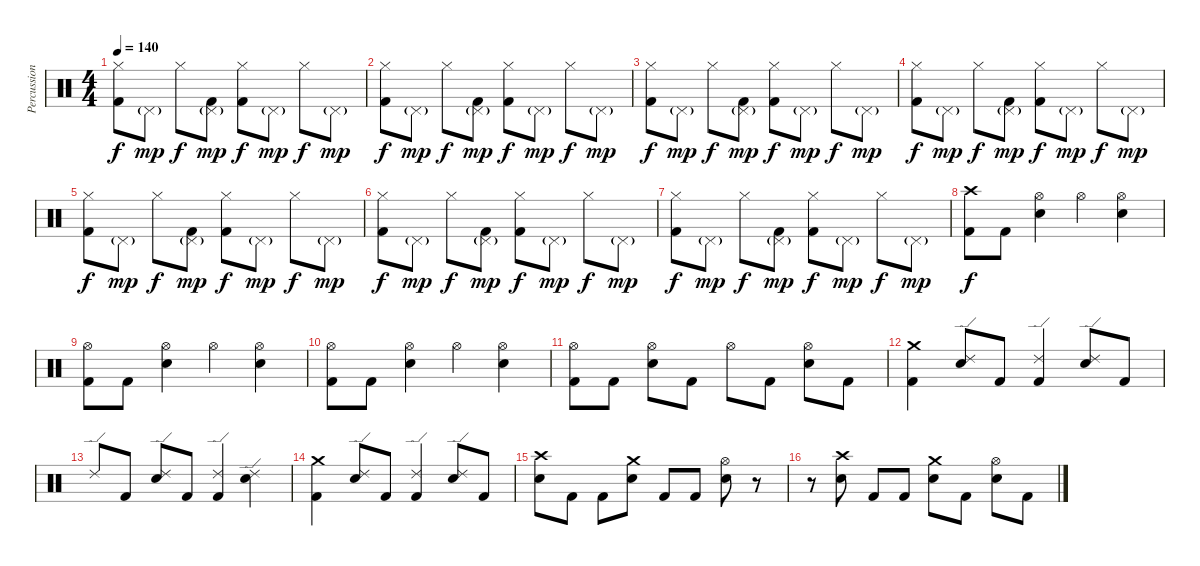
\track ("Percussion" "Percussion") {instrument percussion}
\staff {score}
\articulation defaults
\ts (4 4)
\tempo 140
\clef neutral
\ks c
("Kick (hit) 2" "Hi-Hat (closed)").8{dy f} "Pedal Hi-Hat (hit)"{g}.8{dy mp} "Hi-Hat (closed)".8{dy f} ("Kick (hit) 2" "Pedal Hi-Hat (hit)"{g}).8{dy mp} ("Kick (hit) 2" "Hi-Hat (closed)").8{dy f} "Pedal Hi-Hat (hit)"{g}.8{dy mp} "Hi-Hat (closed)".8{dy f} "Pedal Hi-Hat (hit)"{g}.8{dy mp} |
("Kick (hit) 2" "Hi-Hat (closed)").8{dy f} "Pedal Hi-Hat (hit)"{g}.8{dy mp} "Hi-Hat (closed)".8{dy f} ("Kick (hit) 2" "Pedal Hi-Hat (hit)"{g}).8{dy mp} ("Kick (hit) 2" "Hi-Hat (closed)").8{dy f} "Pedal Hi-Hat (hit)"{g}.8{dy mp} "Hi-Hat (closed)".8{dy f} "Pedal Hi-Hat (hit)"{g}.8{dy mp} |
("Kick (hit) 2" "Hi-Hat (closed)").8{dy f} "Pedal Hi-Hat (hit)"{g}.8{dy mp} "Hi-Hat (closed)".8{dy f} ("Kick (hit) 2" "Pedal Hi-Hat (hit)"{g}).8{dy mp} ("Kick (hit) 2" "Hi-Hat (closed)").8{dy f} "Pedal Hi-Hat (hit)"{g}.8{dy mp} "Hi-Hat (closed)".8{dy f} "Pedal Hi-Hat (hit)"{g}.8{dy mp} |
("Kick (hit) 2" "Hi-Hat (closed)").8{dy f} "Pedal Hi-Hat (hit)"{g}.8{dy mp} "Hi-Hat (closed)".8{dy f} ("Kick (hit) 2" "Pedal Hi-Hat (hit)"{g}).8{dy mp} ("Kick (hit) 2" "Hi-Hat (closed)").8{dy f} "Pedal Hi-Hat (hit)"{g}.8{dy mp} "Hi-Hat (closed)".8{dy f} "Pedal Hi-Hat (hit)"{g}.8{dy mp} |
("Kick (hit) 2" "Hi-Hat (closed)").8{dy f} "Pedal Hi-Hat (hit)"{g}.8{dy mp} "Hi-Hat (closed)".8{dy f} ("Kick (hit) 2" "Pedal Hi-Hat (hit)"{g}).8{dy mp} ("Kick (hit) 2" "Hi-Hat (closed)").8{dy f} "Pedal Hi-Hat (hit)"{g}.8{dy mp} "Hi-Hat (closed)".8{dy f} "Pedal Hi-Hat (hit)"{g}.8{dy mp} |
("Kick (hit) 2" "Hi-Hat (closed)").8{dy f} "Pedal Hi-Hat (hit)"{g}.8{dy mp} "Hi-Hat (closed)".8{dy f} ("Kick (hit) 2" "Pedal Hi-Hat (hit)"{g}).8{dy mp} ("Kick (hit) 2" "Hi-Hat (closed)").8{dy f} "Pedal Hi-Hat (hit)"{g}.8{dy mp} "Hi-Hat (closed)".8{dy f} "Pedal Hi-Hat (hit)"{g}.8{dy mp} |
("Kick (hit) 2" "Hi-Hat (closed)").8{dy f} "Pedal Hi-Hat (hit)"{g}.8{dy mp} "Hi-Hat (closed)".8{dy f} ("Kick (hit) 2" "Pedal Hi-Hat (hit)"{g}).8{dy mp} ("Kick (hit) 2" "Hi-Hat (closed)").8{dy f} "Pedal Hi-Hat (hit)"{g}.8{dy mp} "Hi-Hat (closed)".8{dy f} "Pedal Hi-Hat (hit)"{g}.8{dy mp} |
("Kick (hit) 2" "Crash high (hit)").8{dy f} "Kick (hit) 2".8 ("Snare (hit) 2" "Hi-Hat (open)").4 "Hi-Hat (open)".4 ("Snare (hit) 2" "Hi-Hat (open)").4 |
("Kick (hit) 2" "Hi-Hat (open)").8 "Kick (hit) 2".8 ("Snare (hit) 2" "Hi-Hat (open)").4 "Hi-Hat (open)".4 ("Snare (hit) 2" "Hi-Hat (open)").4 |
("Kick (hit) 2" "Hi-Hat (open)").8 "Kick (hit) 2".8 ("Snare (hit) 2" "Hi-Hat (open)").4 "Hi-Hat (open)".4 ("Snare (hit) 2" "Hi-Hat (open)").4 |
("Kick (hit) 2" "Hi-Hat (open)").8 "Kick (hit) 2".8 ("Snare (hit) 2" "Hi-Hat (open)").8 "Kick (hit) 2".8 "Hi-Hat (open)".8 "Kick (hit) 2".8 ("Snare (hit) 2" "Hi-Hat (open)").8 "Kick (hit) 2".8 |
("Kick (hit) 2" "Crash medium (hit)").4 ("Snare (hit) 2" "Ride (edge) 2").8 "Kick (hit) 2".8 ("Kick (hit) 2" "Ride (edge) 2").4 ("Snare (hit) 2" "Ride (edge) 2").8 "Kick (hit) 2".8 |
"Ride (edge) 2".8 "Kick (hit) 2".8 ("Snare (hit) 2" "Ride (edge) 2").8 "Kick (hit) 2".8 ("Kick (hit) 2" "Ride (edge) 2").4 ("Snare (hit) 2" "Ride (edge) 2").4 |
("Kick (hit) 2" "Crash medium (hit)").4 ("Snare (hit) 2" "Ride (edge) 2").8 "Kick (hit) 2".8 ("Kick (hit) 2" "Ride (edge) 2").4 ("Snare (hit) 2" "Ride (edge) 2").8 "Kick (hit) 2".8 |
("Snare (hit) 2" "Crash high (hit)").8 "Kick (hit) 2".8 "Kick (hit) 2".8 ("Snare (hit) 2" "Crash medium (hit)").8 "Kick (hit) 2".8 "Kick (hit) 2".8 ("Snare (hit) 2" "Hi-Hat (open)").8 r.8 |
r.8 ("Snare (hit) 2" "Crash high (hit)").8 "Kick (hit) 2".8 "Kick (hit) 2".8 ("Snare (hit) 2" "Crash medium (hit)").8 "Kick (hit) 2".8 ("Snare (hit) 2" "Hi-Hat (open)").8 "Kick (hit) 2".8
